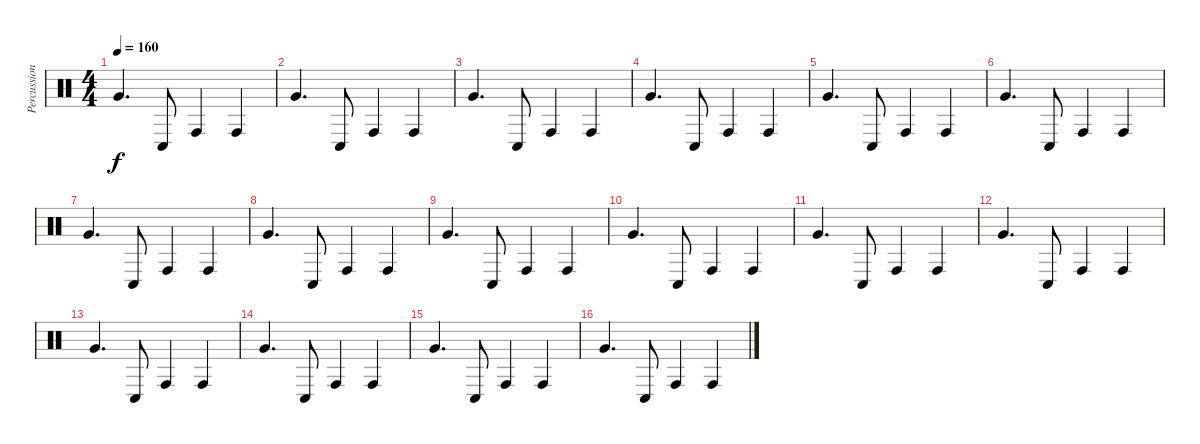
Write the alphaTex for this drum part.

\track ("Percussion 1" "Percussion") {instrument percussion}
\staff {score}
\articulation defaults
\ts (4 4)
\tempo 160
\clef neutral
\ks c "Very Low Tom (hit)".4{d dy f} "Conga low (hit)".8 "Conga high (hit)".4 "Conga high (hit)".4
|
"Very Low Tom (hit)".4{d} "Conga low (hit)".8 "Conga high (hit)".4 "Conga high (hit)".4 |
"Very Low Tom (hit)".4{d} "Conga low (hit)".8 "Conga high (hit)".4 "Conga high (hit)".4 |
"Very Low Tom (hit)".4{d} "Conga low (hit)".8 "Conga high (hit)".4 "Conga high (hit)".4 |
"Very Low Tom (hit)".4{d} "Conga low (hit)".8 "Conga high (hit)".4 "Conga high (hit)".4 |
"Very Low Tom (hit)".4{d} "Conga low (hit)".8 "Conga high (hit)".4 "Conga high (hit)".4 |
"Very Low Tom (hit)".4{d} "Conga low (hit)".8 "Conga high (hit)".4 "Conga high (hit)".4 |
"Very Low Tom (hit)".4{d} "Conga low (hit)".8 "Conga high (hit)".4 "Conga high (hit)".4 |
"Very Low Tom (hit)".4{d} "Conga low (hit)".8 "Conga high (hit)".4 "Conga high (hit)".4 |
"Very Low Tom (hit)".4{d} "Conga low (hit)".8 "Conga high (hit)".4 "Conga high (hit)".4 |
"Very Low Tom (hit)".4{d} "Conga low (hit)".8 "Conga high (hit)".4 "Conga high (hit)".4 |
"Very Low Tom (hit)".4{d} "Conga low (hit)".8 "Conga high (hit)".4 "Conga high (hit)".4 |
"Very Low Tom (hit)".4{d} "Conga low (hit)".8 "Conga high (hit)".4 "Conga high (hit)".4 |
"Very Low Tom (hit)".4{d} "Conga low (hit)".8 "Conga high (hit)".4 "Conga high (hit)".4 |
"Very Low Tom (hit)".4{d} "Conga low (hit)".8 "Conga high (hit)".4 "Conga high (hit)".4 |
"Very Low Tom (hit)".4{d} "Conga low (hit)".8 "Conga high (hit)".4 "Conga high (hit)".4
